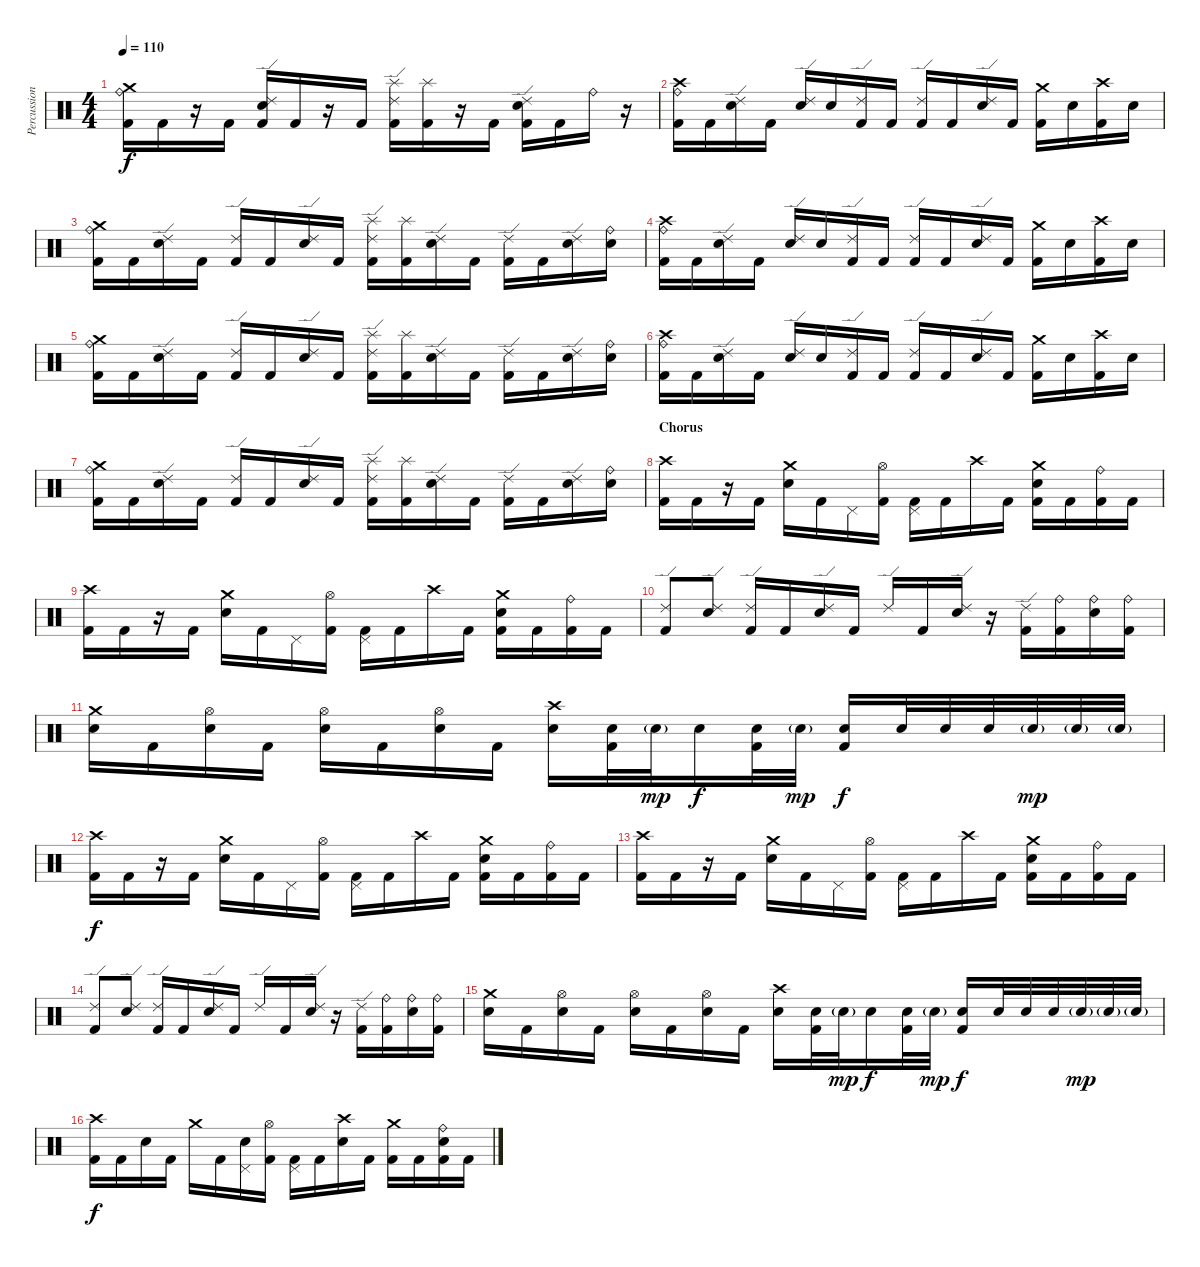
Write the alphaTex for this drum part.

\track ("Percussion" "Percussion") {instrument percussion}
\staff {score}
\articulation defaults
\ts (4 4)
\tempo 110
\clef neutral
\ks c
("Crash medium (hit)" "Ride (bell)" "Kick (hit) 2").16{dy f} "Kick (hit) 2".16 r.16 "Kick (hit) 2".16 ("Ride (edge) 2" "Snare (hit) 2" "Kick (hit) 2").16 "Kick (hit) 2".16 r.16 "Kick (hit) 2".16 ("Splash (hit)" "Ride (edge) 2" "Kick (hit) 2").16 ("Splash (hit)" "Kick (hit) 2").16 r.16 "Kick (hit) 2".16 ("Ride (edge) 2" "Snare (hit) 2" "Kick (hit) 2").16 "Kick (hit) 2".16 "Ride (bell)".16 r.16 |
("Crash high (hit)" "Ride (bell)" "Kick (hit) 2").16 "Kick (hit) 2".16 ("Ride (edge) 2" "Snare (hit) 2").16 "Kick (hit) 2".16 ("Ride (edge) 2" "Snare (hit) 2").16 "Snare (hit) 2".16 ("Ride (edge) 2" "Kick (hit) 2").16 "Kick (hit) 2".16 ("Ride (edge) 2" "Kick (hit) 2").16 "Kick (hit) 2".16 ("Ride (edge) 2" "Snare (hit) 2").16 "Kick (hit) 2".16 ("Crash medium (hit)" "Kick (hit) 2").16 "Snare (hit) 2".16 ("Crash high (hit)" "Kick (hit) 2").16 "Snare (hit) 2".16 |
("Crash medium (hit)" "Ride (bell)" "Kick (hit) 2").16 "Kick (hit) 2".16 ("Ride (edge) 2" "Snare (hit) 2").16 "Kick (hit) 2".16 ("Ride (edge) 2" "Kick (hit) 2").16 "Kick (hit) 2".16 ("Ride (edge) 2" "Snare (hit) 2").16 "Kick (hit) 2".16 ("Splash (hit)" "Ride (edge) 2" "Kick (hit) 2").16 ("Splash (hit)" "Kick (hit) 2").16 ("Ride (edge) 2" "Snare (hit) 2").16 "Kick (hit) 2".16 ("Ride (edge) 2" "Kick (hit) 2").16 "Kick (hit) 2".16 ("Ride (edge) 2" "Snare (hit) 2").16 ("Ride (bell)" "Snare (hit) 2").16 |
("Crash high (hit)" "Ride (bell)" "Kick (hit) 2").16 "Kick (hit) 2".16 ("Ride (edge) 2" "Snare (hit) 2").16 "Kick (hit) 2".16 ("Ride (edge) 2" "Snare (hit) 2").16 "Snare (hit) 2".16 ("Ride (edge) 2" "Kick (hit) 2").16 "Kick (hit) 2".16 ("Ride (edge) 2" "Kick (hit) 2").16 "Kick (hit) 2".16 ("Ride (edge) 2" "Snare (hit) 2").16 "Kick (hit) 2".16 ("Crash medium (hit)" "Kick (hit) 2").16 "Snare (hit) 2".16 ("Crash high (hit)" "Kick (hit) 2").16 "Snare (hit) 2".16 |
("Crash medium (hit)" "Ride (bell)" "Kick (hit) 2").16 "Kick (hit) 2".16 ("Ride (edge) 2" "Snare (hit) 2").16 "Kick (hit) 2".16 ("Ride (edge) 2" "Kick (hit) 2").16 "Kick (hit) 2".16 ("Ride (edge) 2" "Snare (hit) 2").16 "Kick (hit) 2".16 ("Splash (hit)" "Ride (edge) 2" "Kick (hit) 2").16 ("Splash (hit)" "Kick (hit) 2").16 ("Ride (edge) 2" "Snare (hit) 2").16 "Kick (hit) 2".16 ("Ride (edge) 2" "Kick (hit) 2").16 "Kick (hit) 2".16 ("Ride (edge) 2" "Snare (hit) 2").16 ("Ride (bell)" "Snare (hit) 2").16 |
("Crash high (hit)" "Ride (bell)" "Kick (hit) 2").16 "Kick (hit) 2".16 ("Ride (edge) 2" "Snare (hit) 2").16 "Kick (hit) 2".16 ("Ride (edge) 2" "Snare (hit) 2").16 "Snare (hit) 2".16 ("Ride (edge) 2" "Kick (hit) 2").16 "Kick (hit) 2".16 ("Ride (edge) 2" "Kick (hit) 2").16 "Kick (hit) 2".16 ("Ride (edge) 2" "Snare (hit) 2").16 "Kick (hit) 2".16 ("Crash medium (hit)" "Kick (hit) 2").16 "Snare (hit) 2".16 ("Crash high (hit)" "Kick (hit) 2").16 "Snare (hit) 2".16 |
("Crash medium (hit)" "Ride (bell)" "Kick (hit) 2").16 "Kick (hit) 2".16 ("Ride (edge) 2" "Snare (hit) 2").16 "Kick (hit) 2".16 ("Ride (edge) 2" "Kick (hit) 2").16 "Kick (hit) 2".16 ("Ride (edge) 2" "Snare (hit) 2").16 "Kick (hit) 2".16 ("Splash (hit)" "Ride (edge) 2" "Kick (hit) 2").16 ("Splash (hit)" "Kick (hit) 2").16 ("Ride (edge) 2" "Snare (hit) 2").16 "Kick (hit) 2".16 ("Ride (edge) 2" "Kick (hit) 2").16 "Kick (hit) 2".16 ("Ride (edge) 2" "Snare (hit) 2").16 ("Ride (bell)" "Snare (hit) 2").16 |
\section ("" "Chorus")
("Crash high (hit)" "Kick (hit) 2").16 "Kick (hit) 2".16 r.16 "Kick (hit) 2".16 ("Crash medium (hit)" "Snare (hit) 2").16 "Kick (hit) 2".16 "Pedal Hi-Hat (hit)".16 ("Hi-Hat (open)" "Kick (hit) 2").16 ("Pedal Hi-Hat (hit)" "Kick (hit) 2").16 "Kick (hit) 2".16 "Crash high (hit)".16 "Kick (hit) 2".16 ("Crash medium (hit)" "Snare (hit) 2" "Kick (hit) 2").16 "Kick (hit) 2".16 ("Ride (bell)" "Kick (hit) 2").16 "Kick (hit) 2".16 |
("Crash high (hit)" "Kick (hit) 2").16 "Kick (hit) 2".16 r.16 "Kick (hit) 2".16 ("Crash medium (hit)" "Snare (hit) 2").16 "Kick (hit) 2".16 "Pedal Hi-Hat (hit)".16 ("Hi-Hat (open)" "Kick (hit) 2").16 ("Pedal Hi-Hat (hit)" "Kick (hit) 2").16 "Kick (hit) 2".16 "Crash high (hit)".16 "Kick (hit) 2".16 ("Crash medium (hit)" "Snare (hit) 2" "Kick (hit) 2").16 "Kick (hit) 2".16 ("Ride (bell)" "Kick (hit) 2").16 "Kick (hit) 2".16 |
("Ride (edge) 2" "Kick (hit) 2").8 ("Ride (edge) 2" "Snare (hit) 2").8 ("Ride (edge) 2" "Kick (hit) 2").16 "Kick (hit) 2".16 ("Ride (edge) 2" "Snare (hit) 2").16 "Kick (hit) 2".16 "Ride (edge) 2".16 "Kick (hit) 2".16 ("Ride (edge) 2" "Snare (hit) 2").16 r.16 ("Ride (edge) 2" "Kick (hit) 2").16 ("Ride (bell)" "Kick (hit) 2").16 ("Ride (bell)" "Snare (hit) 2").16 ("Ride (bell)" "Kick (hit) 2").16 |
("Crash medium (hit)" "Snare (hit) 2").16 "Kick (hit) 2".16 ("Hi-Hat (open)" "Snare (hit) 2").16 "Kick (hit) 2".16 ("Hi-Hat (open)" "Snare (hit) 2").16 "Kick (hit) 2".16 ("Hi-Hat (open)" "Snare (hit) 2").16 "Kick (hit) 2".16 ("Crash high (hit)" "Snare (hit) 2").16 ("Snare (hit) 2" "Kick (hit) 2").32 "Snare (hit) 2"{g}.32{dy mp} "Snare (hit) 2".16{dy f} ("Snare (hit) 2" "Kick (hit) 2").32 "Snare (hit) 2"{g}.32{dy mp} ("Snare (hit) 2" "Kick (hit) 2").16{dy f} "Snare (hit) 2".32 "Snare (hit) 2".32 "Snare (hit) 2".32 "Snare (hit) 2"{g}.32{dy mp} "Snare (hit) 2"{g}.32 "Snare (hit) 2"{g}.32 |
("Crash high (hit)" "Kick (hit) 2").16{dy f} "Kick (hit) 2".16 r.16 "Kick (hit) 2".16 ("Crash medium (hit)" "Snare (hit) 2").16 "Kick (hit) 2".16 "Pedal Hi-Hat (hit)".16 ("Hi-Hat (open)" "Kick (hit) 2").16 ("Pedal Hi-Hat (hit)" "Kick (hit) 2").16 "Kick (hit) 2".16 "Crash high (hit)".16 "Kick (hit) 2".16 ("Crash medium (hit)" "Snare (hit) 2" "Kick (hit) 2").16 "Kick (hit) 2".16 ("Ride (bell)" "Kick (hit) 2").16 "Kick (hit) 2".16 |
("Crash high (hit)" "Kick (hit) 2").16 "Kick (hit) 2".16 r.16 "Kick (hit) 2".16 ("Crash medium (hit)" "Snare (hit) 2").16 "Kick (hit) 2".16 "Pedal Hi-Hat (hit)".16 ("Hi-Hat (open)" "Kick (hit) 2").16 ("Pedal Hi-Hat (hit)" "Kick (hit) 2").16 "Kick (hit) 2".16 "Crash high (hit)".16 "Kick (hit) 2".16 ("Crash medium (hit)" "Snare (hit) 2" "Kick (hit) 2").16 "Kick (hit) 2".16 ("Ride (bell)" "Kick (hit) 2").16 "Kick (hit) 2".16 |
("Ride (edge) 2" "Kick (hit) 2").8 ("Ride (edge) 2" "Snare (hit) 2").8 ("Ride (edge) 2" "Kick (hit) 2").16 "Kick (hit) 2".16 ("Ride (edge) 2" "Snare (hit) 2").16 "Kick (hit) 2".16 "Ride (edge) 2".16 "Kick (hit) 2".16 ("Ride (edge) 2" "Snare (hit) 2").16 r.16 ("Ride (edge) 2" "Kick (hit) 2").16 ("Ride (bell)" "Kick (hit) 2").16 ("Ride (bell)" "Snare (hit) 2").16 ("Ride (bell)" "Kick (hit) 2").16 |
("Crash medium (hit)" "Snare (hit) 2").16 "Kick (hit) 2".16 ("Hi-Hat (open)" "Snare (hit) 2").16 "Kick (hit) 2".16 ("Hi-Hat (open)" "Snare (hit) 2").16 "Kick (hit) 2".16 ("Hi-Hat (open)" "Snare (hit) 2").16 "Kick (hit) 2".16 ("Crash high (hit)" "Snare (hit) 2").16 ("Snare (hit) 2" "Kick (hit) 2").32 "Snare (hit) 2"{g}.32{dy mp} "Snare (hit) 2".16{dy f} ("Snare (hit) 2" "Kick (hit) 2").32 "Snare (hit) 2"{g}.32{dy mp} ("Snare (hit) 2" "Kick (hit) 2").16{dy f} "Snare (hit) 2".32 "Snare (hit) 2".32 "Snare (hit) 2".32 "Snare (hit) 2"{g}.32{dy mp} "Snare (hit) 2"{g}.32 "Snare (hit) 2"{g}.32 |
("Crash high (hit)" "Kick (hit) 2").16{dy f} "Kick (hit) 2".16 "Snare (hit) 2".16 "Kick (hit) 2".16 "Crash medium (hit)".16 "Kick (hit) 2".16 ("Pedal Hi-Hat (hit)" "Snare (hit) 2").16 ("Hi-Hat (open)" "Kick (hit) 2").16 ("Pedal Hi-Hat (hit)" "Kick (hit) 2").16 "Kick (hit) 2".16 ("Crash high (hit)" "Snare (hit) 2").16 "Kick (hit) 2".16 ("Crash medium (hit)" "Kick (hit) 2").16 "Kick (hit) 2".16 ("Ride (bell)" "Snare (hit) 2" "Kick (hit) 2").16 "Kick (hit) 2".16
